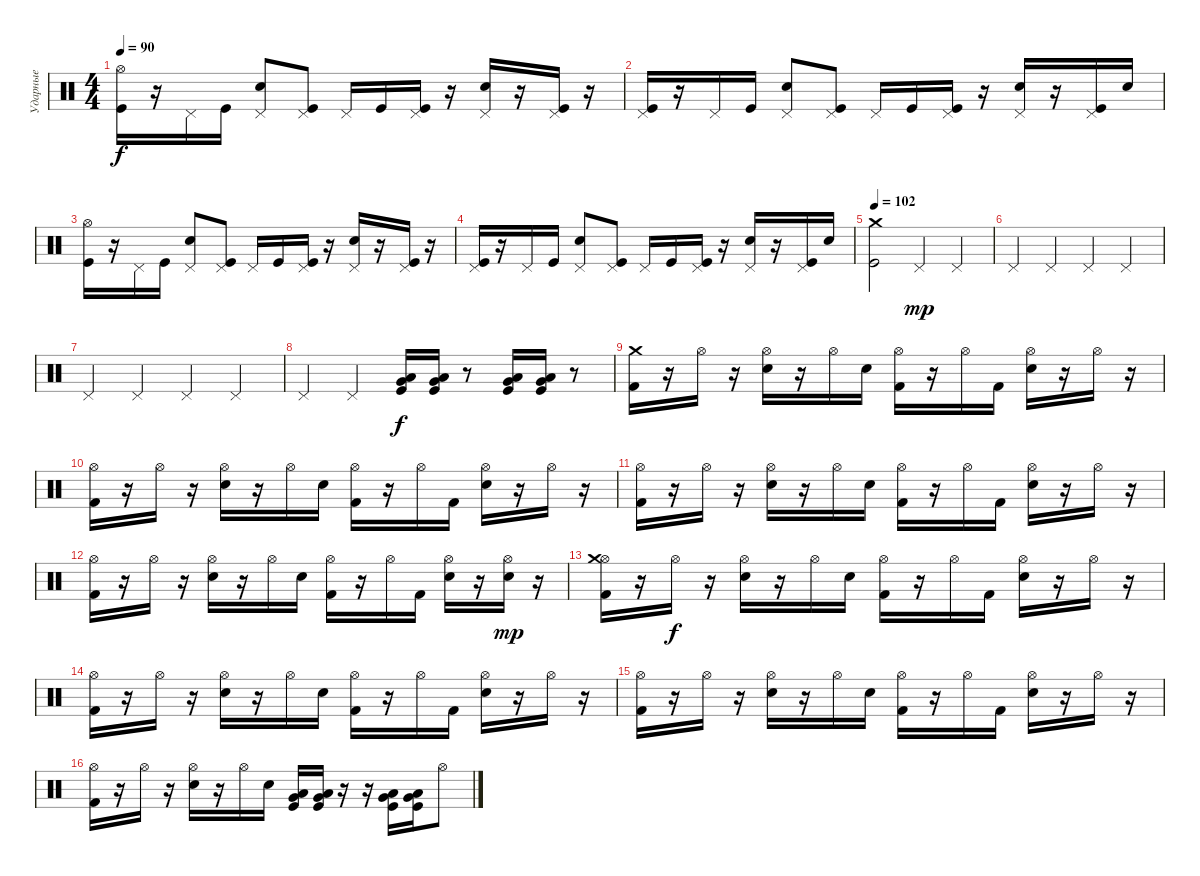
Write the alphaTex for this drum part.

\track ("Ударные" "Ударные") {instrument percussion}
\staff {score}
\articulation defaults
\ts (4 4)
\tempo 90
\clef neutral
\ks c
("Hi-Hat (open)" "Kick (hit)").16{dy f} r.16 "Pedal Hi-Hat (hit)".16 "Kick (hit)".16 ("Pedal Hi-Hat (hit)" "Electric Snare (hit)").8 ("Pedal Hi-Hat (hit)" "Kick (hit)").8 "Pedal Hi-Hat (hit)".16 "Kick (hit)".16 ("Pedal Hi-Hat (hit)" "Kick (hit)").16 r.16 ("Pedal Hi-Hat (hit)" "Electric Snare (hit)").16 r.16 ("Pedal Hi-Hat (hit)" "Kick (hit)").16 r.16 |
("Pedal Hi-Hat (hit)" "Kick (hit)").16 r.16 "Pedal Hi-Hat (hit)".16 "Kick (hit)".16 ("Pedal Hi-Hat (hit)" "Electric Snare (hit)").8 ("Pedal Hi-Hat (hit)" "Kick (hit)").8 "Pedal Hi-Hat (hit)".16 "Kick (hit)".16 ("Pedal Hi-Hat (hit)" "Kick (hit)").16 r.16 ("Pedal Hi-Hat (hit)" "Electric Snare (hit)").16 r.16 ("Pedal Hi-Hat (hit)" "Kick (hit)").16 "Electric Snare (hit)".16 |
("Hi-Hat (open)" "Kick (hit)").16 r.16 "Pedal Hi-Hat (hit)".16 "Kick (hit)".16 ("Pedal Hi-Hat (hit)" "Electric Snare (hit)").8 ("Pedal Hi-Hat (hit)" "Kick (hit)").8 "Pedal Hi-Hat (hit)".16 "Kick (hit)".16 ("Pedal Hi-Hat (hit)" "Kick (hit)").16 r.16 ("Pedal Hi-Hat (hit)" "Electric Snare (hit)").16 r.16 ("Pedal Hi-Hat (hit)" "Kick (hit)").16 r.16 |
("Pedal Hi-Hat (hit)" "Kick (hit)").16 r.16 "Pedal Hi-Hat (hit)".16 "Kick (hit)".16 ("Pedal Hi-Hat (hit)" "Electric Snare (hit)").8 ("Pedal Hi-Hat (hit)" "Kick (hit)").8 "Pedal Hi-Hat (hit)".16 "Kick (hit)".16 ("Pedal Hi-Hat (hit)" "Kick (hit)").16 r.16 ("Pedal Hi-Hat (hit)" "Electric Snare (hit)").16 r.16 ("Pedal Hi-Hat (hit)" "Kick (hit)").16 "Electric Snare (hit)".16 |
\tempo 102
("Crash medium (hit)" "Kick (hit)").2 "Pedal Hi-Hat (hit)".4{dy mp} "Pedal Hi-Hat (hit)".4 |
"Pedal Hi-Hat (hit)".4 "Pedal Hi-Hat (hit)".4 "Pedal Hi-Hat (hit)".4 "Pedal Hi-Hat (hit)".4 |
"Pedal Hi-Hat (hit)".4 "Pedal Hi-Hat (hit)".4 "Pedal Hi-Hat (hit)".4 "Pedal Hi-Hat (hit)".4 |
"Pedal Hi-Hat (hit)".4 "Pedal Hi-Hat (hit)".4 ("Low Floor Tom (hit)" "Very Low Tom (hit)" "Kick (hit)").16{dy f} ("Low Floor Tom (hit)" "Very Low Tom (hit)" "Kick (hit)").16 r.8 ("Low Floor Tom (hit)" "Very Low Tom (hit)" "Kick (hit)").16 ("Low Floor Tom (hit)" "Very Low Tom (hit)" "Kick (hit)").16 r.8 |
("Crash medium (hit)" "Kick (hit) 2").16 r.16 "Hi-Hat (open)".16 r.16 ("Hi-Hat (open)" "Electric Snare (hit)").16 r.16 "Hi-Hat (open)".16 "Electric Snare (hit)".16 ("Hi-Hat (open)" "Kick (hit) 2").16 r.16 "Hi-Hat (open)".16 "Kick (hit) 2".16 ("Hi-Hat (open)" "Electric Snare (hit)").16 r.16 "Hi-Hat (open)".16 r.16 |
("Hi-Hat (open)" "Kick (hit) 2").16 r.16 "Hi-Hat (open)".16 r.16 ("Hi-Hat (open)" "Electric Snare (hit)").16 r.16 "Hi-Hat (open)".16 "Electric Snare (hit)".16 ("Hi-Hat (open)" "Kick (hit) 2").16 r.16 "Hi-Hat (open)".16 "Kick (hit) 2".16 ("Hi-Hat (open)" "Electric Snare (hit)").16 r.16 "Hi-Hat (open)".16 r.16 |
("Hi-Hat (open)" "Kick (hit) 2").16 r.16 "Hi-Hat (open)".16 r.16 ("Hi-Hat (open)" "Electric Snare (hit)").16 r.16 "Hi-Hat (open)".16 "Electric Snare (hit)".16 ("Hi-Hat (open)" "Kick (hit) 2").16 r.16 "Hi-Hat (open)".16 "Kick (hit) 2".16 ("Hi-Hat (open)" "Electric Snare (hit)").16 r.16 "Hi-Hat (open)".16 r.16 |
("Hi-Hat (open)" "Kick (hit) 2").16 r.16 "Hi-Hat (open)".16 r.16 ("Hi-Hat (open)" "Electric Snare (hit)").16 r.16 "Hi-Hat (open)".16 "Electric Snare (hit)".16 ("Hi-Hat (open)" "Kick (hit) 2").16 r.16 "Hi-Hat (open)".16 "Kick (hit) 2".16 ("Hi-Hat (open)" "Electric Snare (hit)").16 r.16 ("Hi-Hat (open)" "Electric Snare (hit)").16{dy mp} r.16 |
("Hi-Hat (open)" "Crash medium (hit)" "Kick (hit) 2").16 r.16 "Hi-Hat (open)".16{dy f} r.16 ("Hi-Hat (open)" "Electric Snare (hit)").16 r.16 "Hi-Hat (open)".16 "Electric Snare (hit)".16 ("Hi-Hat (open)" "Kick (hit) 2").16 r.16 "Hi-Hat (open)".16 "Kick (hit) 2".16 ("Hi-Hat (open)" "Electric Snare (hit)").16 r.16 "Hi-Hat (open)".16 r.16 |
("Hi-Hat (open)" "Kick (hit) 2").16 r.16 "Hi-Hat (open)".16 r.16 ("Hi-Hat (open)" "Electric Snare (hit)").16 r.16 "Hi-Hat (open)".16 "Electric Snare (hit)".16 ("Hi-Hat (open)" "Kick (hit) 2").16 r.16 "Hi-Hat (open)".16 "Kick (hit) 2".16 ("Hi-Hat (open)" "Electric Snare (hit)").16 r.16 "Hi-Hat (open)".16 r.16 |
("Hi-Hat (open)" "Kick (hit) 2").16 r.16 "Hi-Hat (open)".16 r.16 ("Hi-Hat (open)" "Electric Snare (hit)").16 r.16 "Hi-Hat (open)".16 "Electric Snare (hit)".16 ("Hi-Hat (open)" "Kick (hit) 2").16 r.16 "Hi-Hat (open)".16 "Kick (hit) 2".16 ("Hi-Hat (open)" "Electric Snare (hit)").16 r.16 "Hi-Hat (open)".16 r.16 |
("Hi-Hat (open)" "Kick (hit) 2").16 r.16 "Hi-Hat (open)".16 r.16 ("Hi-Hat (open)" "Electric Snare (hit)").16 r.16 "Hi-Hat (open)".16 "Electric Snare (hit)".16 ("Very Low Tom (hit)" "Low Floor Tom (hit)" "Kick (hit)").16 ("Very Low Tom (hit)" "Low Floor Tom (hit)" "Kick (hit)").16 r.16 r.16 ("Very Low Tom (hit)" "Low Floor Tom (hit)" "Kick (hit)").16 ("Very Low Tom (hit)" "Low Floor Tom (hit)" "Kick (hit)").16 "Hi-Hat (open)".8
